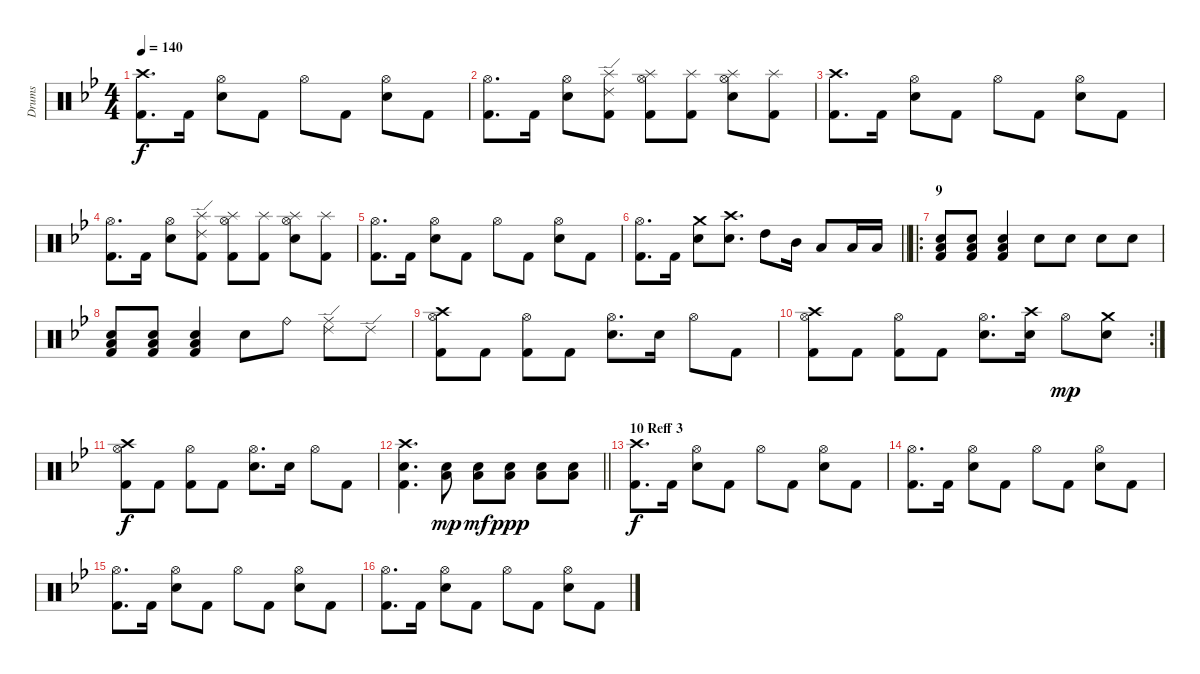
\track ("Drums" "Drums") {instrument percussion}
\staff {score}
\articulation defaults
\ts (4 4)
\tempo 140
\clef neutral
\ks bb
("Crash high (hit)" "Kick (hit) 2").8{d dy f} "Kick (hit) 2".16 ("Electric Snare (hit)" "Hi-Hat (open)").8 "Kick (hit) 2".8 "Hi-Hat (open)".8 "Kick (hit) 2".8 ("Hi-Hat (open)" "Electric Snare (hit)").8 "Kick (hit) 2".8 |
("Hi-Hat (open)" "Kick (hit) 2").8{d} "Kick (hit) 2".16 ("Electric Snare (hit)" "Hi-Hat (open)").8 ("Kick (hit) 2" "Splash (hit)" "Ride (edge) 2").8 ("Hi-Hat (open)" "Splash (hit)" "Kick (hit) 2").8 ("Kick (hit) 2" "Splash (hit)").8 ("Hi-Hat (open)" "Electric Snare (hit)" "Splash (hit)").8 ("Kick (hit) 2" "Splash (hit)").8 |
("Crash high (hit)" "Kick (hit) 2").8{d} "Kick (hit) 2".16 ("Electric Snare (hit)" "Hi-Hat (open)").8 "Kick (hit) 2".8 "Hi-Hat (open)".8 "Kick (hit) 2".8 ("Hi-Hat (open)" "Electric Snare (hit)").8 "Kick (hit) 2".8 |
("Hi-Hat (open)" "Kick (hit) 2").8{d} "Kick (hit) 2".16 ("Electric Snare (hit)" "Hi-Hat (open)").8 ("Kick (hit) 2" "Splash (hit)" "Ride (edge) 2").8 ("Hi-Hat (open)" "Splash (hit)" "Kick (hit) 2").8 ("Kick (hit) 2" "Splash (hit)").8 ("Hi-Hat (open)" "Electric Snare (hit)" "Splash (hit)").8 ("Kick (hit) 2" "Splash (hit)").8 |
("Hi-Hat (open)" "Kick (hit) 2").8{d} "Kick (hit) 2".16 ("Electric Snare (hit)" "Hi-Hat (open)").8 "Kick (hit) 2".8 "Hi-Hat (open)".8 "Kick (hit) 2".8 ("Hi-Hat (open)" "Electric Snare (hit)").8 "Kick (hit) 2".8 |
\barLineRight lightlight
("Hi-Hat (open)" "Kick (hit) 2").8{d} "Kick (hit) 2".16 ("Electric Snare (hit)" "Crash medium (hit)").8 ("Electric Snare (hit)" "Crash high (hit)").8{d} "High Tom (hit)".8 "Mid Tom (hit)".16 "Low Tom (hit)".8 "Low Floor Tom (hit)".16 "Low Floor Tom (hit)".16 |
\ro
\section ("" "9")
("Electric Snare (hit)" "Low Floor Tom (hit)" "Kick (hit) 2").8 ("Electric Snare (hit)" "Low Floor Tom (hit)" "Kick (hit) 2").8 ("Electric Snare (hit)" "Low Floor Tom (hit)" "Kick (hit) 2").4 "Electric Snare (hit)".8 "Electric Snare (hit)".8 "Electric Snare (hit)".8 "Electric Snare (hit)".8 |
("Electric Snare (hit)" "Low Floor Tom (hit)" "Kick (hit) 2").8 ("Electric Snare (hit)" "Low Floor Tom (hit)" "Kick (hit) 2").8 ("Electric Snare (hit)" "Low Floor Tom (hit)" "Kick (hit) 2").4 "Electric Snare (hit)".8 "Ride (bell)".8 ("Ride (edge) 2" "Ride (middle)").8 "Ride (edge) 2".8 |
("Hi-Hat (open)" "Kick (hit) 2" "Crash high (hit)").8 "Kick (hit) 2".8 ("Hi-Hat (open)" "Kick (hit) 2").8 "Kick (hit) 2".8 ("Hi-Hat (open)" "Electric Snare (hit)").8{d} "Electric Snare (hit)".16 "Hi-Hat (open)".8 "Kick (hit) 2".8 |
\rc 2
("Hi-Hat (open)" "Kick (hit) 2" "Crash high (hit)").8 "Kick (hit) 2".8 ("Hi-Hat (open)" "Kick (hit) 2").8 "Kick (hit) 2".8 ("Hi-Hat (open)" "Electric Snare (hit)").8{d} ("Electric Snare (hit)" "Crash high (hit)").16 "Hi-Hat (open)".8{dy mp} ("Crash medium (hit)" "Electric Snare (hit)").8 |
("Hi-Hat (open)" "Kick (hit) 2" "Crash high (hit)").8{dy f} "Kick (hit) 2".8 ("Hi-Hat (open)" "Kick (hit) 2").8 "Kick (hit) 2".8 ("Hi-Hat (open)" "Electric Snare (hit)").8{d} "Electric Snare (hit)".16 "Hi-Hat (open)".8 "Kick (hit) 2".8 |
\barLineRight lightlight
("Crash high (hit)" "Kick (hit) 2" "Electric Snare (hit)").4{d} ("Low Floor Tom (hit)" "Electric Snare (hit)").8{dy mp} ("Low Floor Tom (hit)" "Electric Snare (hit)").8{dy mf} ("Low Floor Tom (hit)" "Electric Snare (hit)").8{dy ppp} ("Low Floor Tom (hit)" "Electric Snare (hit)").8 ("Low Floor Tom (hit)" "Electric Snare (hit)").8 |
\section ("" "10 Reff 3")
("Crash high (hit)" "Kick (hit) 2").8{d dy f} "Kick (hit) 2".16 ("Electric Snare (hit)" "Hi-Hat (open)").8 "Kick (hit) 2".8 "Hi-Hat (open)".8 "Kick (hit) 2".8 ("Hi-Hat (open)" "Electric Snare (hit)").8 "Kick (hit) 2".8 |
("Hi-Hat (open)" "Kick (hit) 2").8{d} "Kick (hit) 2".16 ("Electric Snare (hit)" "Hi-Hat (open)").8 "Kick (hit) 2".8 "Hi-Hat (open)".8 "Kick (hit) 2".8 ("Hi-Hat (open)" "Electric Snare (hit)").8 "Kick (hit) 2".8 |
("Hi-Hat (open)" "Kick (hit) 2").8{d} "Kick (hit) 2".16 ("Electric Snare (hit)" "Hi-Hat (open)").8 "Kick (hit) 2".8 "Hi-Hat (open)".8 "Kick (hit) 2".8 ("Hi-Hat (open)" "Electric Snare (hit)").8 "Kick (hit) 2".8 |
("Hi-Hat (open)" "Kick (hit) 2").8{d} "Kick (hit) 2".16 ("Electric Snare (hit)" "Hi-Hat (open)").8 "Kick (hit) 2".8 "Hi-Hat (open)".8 "Kick (hit) 2".8 ("Hi-Hat (open)" "Electric Snare (hit)").8 "Kick (hit) 2".8
